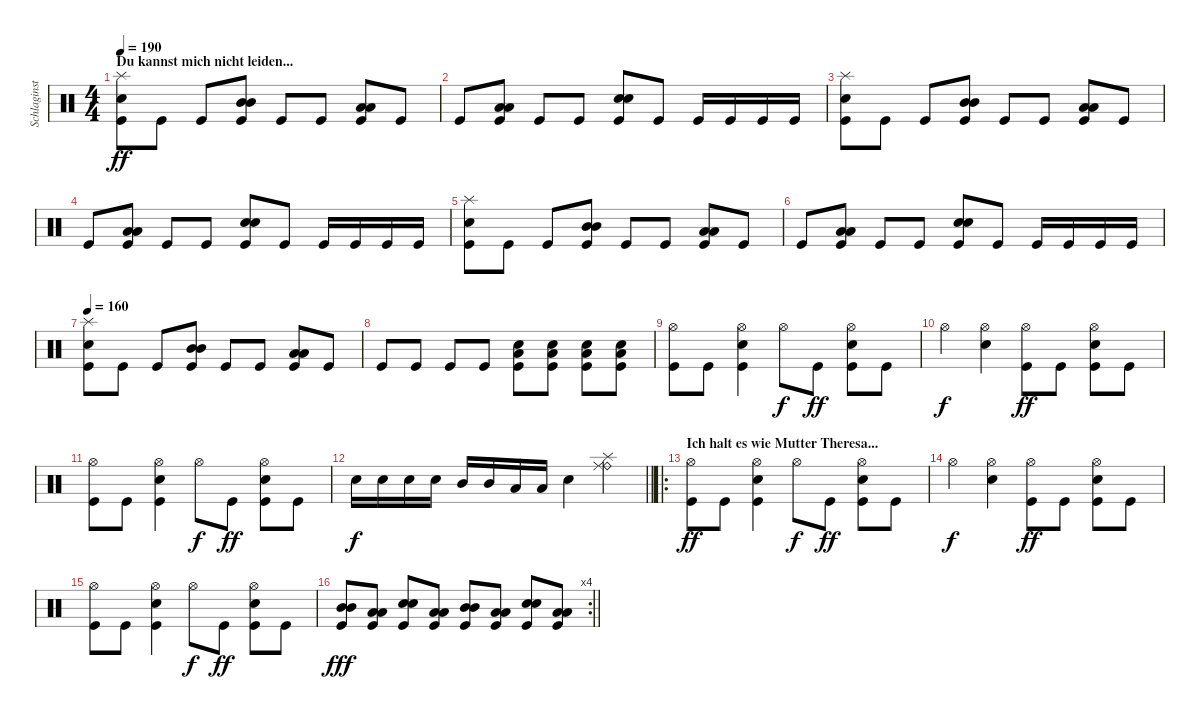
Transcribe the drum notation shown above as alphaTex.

\track ("Schlaginstrumente - Auswahl" "Schlaginst") {instrument percussion}
\staff {score}
\articulation defaults
\ts (4 4)
\section ("" "Du kannst mich nicht leiden...")
\tempo 190
\clef neutral
\ks c
("Splash (hit)" "Electric Snare (hit)" "Kick (hit)").8{dy ff} "Kick (hit)".8 "Kick (hit)".8 ("Mid Tom (hit)" "Mid Tom (hit)" "Kick (hit)").8 "Kick (hit)".8 "Kick (hit)".8 ("Low Tom (hit)" "Low Tom (hit)" "Kick (hit)").8 "Kick (hit)".8 |
"Kick (hit)".8 ("Low Floor Tom (hit)" "Low Floor Tom (hit)" "Kick (hit)").8 "Kick (hit)".8 "Kick (hit)".8 ("Electric Snare (hit)" "Electric Snare (hit)" "Kick (hit)").8 "Kick (hit)".8 "Kick (hit)".16 "Kick (hit)".16 "Kick (hit)".16 "Kick (hit)".16 |
("Splash (hit)" "Electric Snare (hit)" "Kick (hit)").8 "Kick (hit)".8 "Kick (hit)".8 ("Mid Tom (hit)" "Mid Tom (hit)" "Kick (hit)").8 "Kick (hit)".8 "Kick (hit)".8 ("Low Tom (hit)" "Low Tom (hit)" "Kick (hit)").8 "Kick (hit)".8 |
"Kick (hit)".8 ("Low Floor Tom (hit)" "Low Floor Tom (hit)" "Kick (hit)").8 "Kick (hit)".8 "Kick (hit)".8 ("Electric Snare (hit)" "Electric Snare (hit)" "Kick (hit)").8 "Kick (hit)".8 "Kick (hit)".16 "Kick (hit)".16 "Kick (hit)".16 "Kick (hit)".16 |
("Splash (hit)" "Electric Snare (hit)" "Kick (hit)").8 "Kick (hit)".8 "Kick (hit)".8 ("Mid Tom (hit)" "Mid Tom (hit)" "Kick (hit)").8 "Kick (hit)".8 "Kick (hit)".8 ("Low Tom (hit)" "Low Tom (hit)" "Kick (hit)").8 "Kick (hit)".8 |
"Kick (hit)".8 ("Low Floor Tom (hit)" "Low Floor Tom (hit)" "Kick (hit)").8 "Kick (hit)".8 "Kick (hit)".8 ("Electric Snare (hit)" "Electric Snare (hit)" "Kick (hit)").8 "Kick (hit)".8 "Kick (hit)".16 "Kick (hit)".16 "Kick (hit)".16 "Kick (hit)".16 |
\tempo 160
("Splash (hit)" "Electric Snare (hit)" "Kick (hit)").8 "Kick (hit)".8 "Kick (hit)".8 ("Mid Tom (hit)" "Mid Tom (hit)" "Kick (hit)").8 "Kick (hit)".8 "Kick (hit)".8 ("Low Tom (hit)" "Low Tom (hit)" "Kick (hit)").8 "Kick (hit)".8 |
"Kick (hit)".8 "Kick (hit)".8 "Kick (hit)".8 "Kick (hit)".8 ("Electric Snare (hit)" "Low Floor Tom (hit)" "Kick (hit)").8 ("Electric Snare (hit)" "Low Floor Tom (hit)" "Kick (hit)").8 ("Electric Snare (hit)" "Low Floor Tom (hit)" "Kick (hit)").8 ("Electric Snare (hit)" "Low Floor Tom (hit)" "Kick (hit)").8 |
("Hi-Hat (open)" "Kick (hit)").8 "Kick (hit)".8 ("Hi-Hat (open)" "Electric Snare (hit)" "Kick (hit)").4 "Hi-Hat (open)".8{dy f} "Kick (hit)".8{dy ff} ("Hi-Hat (open)" "Electric Snare (hit)" "Kick (hit)").8 "Kick (hit)".8 |
"Hi-Hat (open)".4{dy f} ("Hi-Hat (open)" "Electric Snare (hit)").4 ("Hi-Hat (open)" "Kick (hit)").8{dy ff} "Kick (hit)".8 ("Hi-Hat (open)" "Electric Snare (hit)" "Kick (hit)").8 "Kick (hit)".8 |
("Hi-Hat (open)" "Kick (hit)").8 "Kick (hit)".8 ("Hi-Hat (open)" "Electric Snare (hit)" "Kick (hit)").4 "Hi-Hat (open)".8{dy f} "Kick (hit)".8{dy ff} ("Hi-Hat (open)" "Electric Snare (hit)" "Kick (hit)").8 "Kick (hit)".8 |
\barLineRight lightlight "Electric Snare (hit)".16{dy f} "Electric Snare (hit)".16 "Electric Snare (hit)".16 "Electric Snare (hit)".16 "Mid Tom (hit)".16 "Mid Tom (hit)".16 "Low Tom (hit)".16 "Low Tom (hit)".16 "Electric Snare (hit)".4
("Splash (hit)" "Ride (bell)" "Ride (middle)").4 |
\ro
\section ("" "Ich halt es wie Mutter Theresa...")
("Hi-Hat (open)" "Kick (hit)").8{dy ff} "Kick (hit)".8 ("Hi-Hat (open)" "Electric Snare (hit)" "Kick (hit)").4 "Hi-Hat (open)".8{dy f} "Kick (hit)".8{dy ff} ("Hi-Hat (open)" "Electric Snare (hit)" "Kick (hit)").8 "Kick (hit)".8 |
"Hi-Hat (open)".4{dy f} ("Hi-Hat (open)" "Electric Snare (hit)").4 ("Hi-Hat (open)" "Kick (hit)").8{dy ff} "Kick (hit)".8 ("Hi-Hat (open)" "Electric Snare (hit)" "Kick (hit)").8 "Kick (hit)".8 |
("Hi-Hat (open)" "Kick (hit)").8 "Kick (hit)".8 ("Hi-Hat (open)" "Electric Snare (hit)" "Kick (hit)").4 "Hi-Hat (open)".8{dy f} "Kick (hit)".8{dy ff} ("Hi-Hat (open)" "Electric Snare (hit)" "Kick (hit)").8 "Kick (hit)".8 |
\rc 4
\barLineRight lightlight
("Mid Tom (hit)" "Mid Tom (hit)" "Kick (hit)").8{dy fff} ("Low Tom (hit)" "Low Tom (hit)" "Kick (hit)").8 ("Electric Snare (hit)" "Electric Snare (hit)" "Kick (hit)").8 ("Low Tom (hit)" "Low Tom (hit)" "Kick (hit)").8 ("Mid Tom (hit)" "Mid Tom (hit)" "Kick (hit)").8 ("Low Tom (hit)" "Low Tom (hit)" "Kick (hit)").8 ("Electric Snare (hit)" "Electric Snare (hit)" "Kick (hit)").8 ("Low Tom (hit)" "Low Tom (hit)" "Kick (hit)").8
